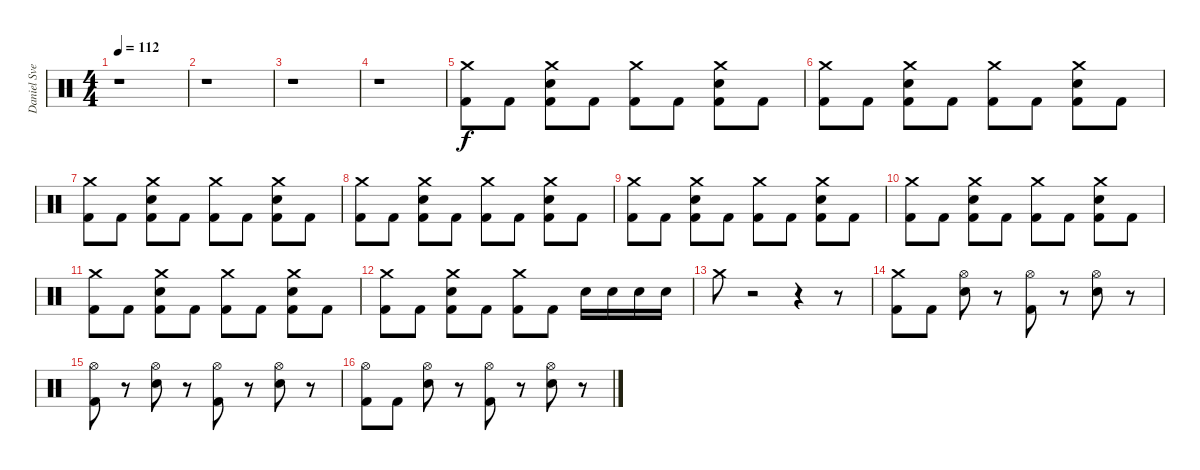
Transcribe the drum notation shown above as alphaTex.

\track ("Daniel Svensson" "Daniel Sve") {instrument percussion}
\staff {score}
\articulation defaults
\ts (4 4)
\tempo 112
\clef neutral
\ks c
r.1{dy f} |
r.1 |
r.1 |
r.1 |
("Crash medium (hit)" "Kick (hit) 2").8 "Kick (hit) 2".8 ("Crash medium (hit)" "Snare (hit) 2" "Kick (hit) 2").8 "Kick (hit) 2".8 ("Crash medium (hit)" "Kick (hit) 2").8 "Kick (hit) 2".8 ("Crash medium (hit)" "Snare (hit) 2" "Kick (hit) 2").8 "Kick (hit) 2".8 |
("Crash medium (hit)" "Kick (hit) 2").8 "Kick (hit) 2".8 ("Crash medium (hit)" "Snare (hit) 2" "Kick (hit) 2").8 "Kick (hit) 2".8 ("Crash medium (hit)" "Kick (hit) 2").8 "Kick (hit) 2".8 ("Crash medium (hit)" "Snare (hit) 2" "Kick (hit) 2").8 "Kick (hit) 2".8 |
("Crash medium (hit)" "Kick (hit) 2").8 "Kick (hit) 2".8 ("Crash medium (hit)" "Snare (hit) 2" "Kick (hit) 2").8 "Kick (hit) 2".8 ("Crash medium (hit)" "Kick (hit) 2").8 "Kick (hit) 2".8 ("Crash medium (hit)" "Snare (hit) 2" "Kick (hit) 2").8 "Kick (hit) 2".8 |
("Crash medium (hit)" "Kick (hit) 2").8 "Kick (hit) 2".8 ("Crash medium (hit)" "Snare (hit) 2" "Kick (hit) 2").8 "Kick (hit) 2".8 ("Crash medium (hit)" "Kick (hit) 2").8 "Kick (hit) 2".8 ("Crash medium (hit)" "Snare (hit) 2" "Kick (hit) 2").8 "Kick (hit) 2".8 |
("Crash medium (hit)" "Kick (hit) 2").8 "Kick (hit) 2".8 ("Crash medium (hit)" "Snare (hit) 2" "Kick (hit) 2").8 "Kick (hit) 2".8 ("Crash medium (hit)" "Kick (hit) 2").8 "Kick (hit) 2".8 ("Crash medium (hit)" "Snare (hit) 2" "Kick (hit) 2").8 "Kick (hit) 2".8 |
("Crash medium (hit)" "Kick (hit) 2").8 "Kick (hit) 2".8 ("Crash medium (hit)" "Snare (hit) 2" "Kick (hit) 2").8 "Kick (hit) 2".8 ("Crash medium (hit)" "Kick (hit) 2").8 "Kick (hit) 2".8 ("Crash medium (hit)" "Snare (hit) 2" "Kick (hit) 2").8 "Kick (hit) 2".8 |
("Crash medium (hit)" "Kick (hit) 2").8 "Kick (hit) 2".8 ("Crash medium (hit)" "Snare (hit) 2" "Kick (hit) 2").8 "Kick (hit) 2".8 ("Crash medium (hit)" "Kick (hit) 2").8 "Kick (hit) 2".8 ("Crash medium (hit)" "Snare (hit) 2" "Kick (hit) 2").8 "Kick (hit) 2".8 |
("Crash medium (hit)" "Kick (hit) 2").8 "Kick (hit) 2".8 ("Crash medium (hit)" "Snare (hit) 2" "Kick (hit) 2").8 "Kick (hit) 2".8 ("Crash medium (hit)" "Kick (hit) 2").8 "Kick (hit) 2".8 "Snare (hit) 2".16 "Snare (hit) 2".16 "Snare (hit) 2".16 "Snare (hit) 2".16 |
"Crash medium (hit)".8 r.2 r.4 r.8 |
("Crash medium (hit)" "Kick (hit) 2").8 "Kick (hit) 2".8 ("Hi-Hat (open)" "Snare (hit) 2").8 r.8 ("Hi-Hat (open)" "Kick (hit) 2").8 r.8 ("Hi-Hat (open)" "Snare (hit) 2").8 r.8 |
("Hi-Hat (open)" "Kick (hit) 2").8 r.8 ("Hi-Hat (open)" "Snare (hit) 2").8 r.8 ("Hi-Hat (open)" "Kick (hit) 2").8 r.8 ("Hi-Hat (open)" "Snare (hit) 2").8 r.8 |
("Hi-Hat (open)" "Kick (hit) 2").8 "Kick (hit) 2".8 ("Hi-Hat (open)" "Snare (hit) 2").8 r.8 ("Hi-Hat (open)" "Kick (hit) 2").8 r.8 ("Hi-Hat (open)" "Snare (hit) 2").8 r.8
